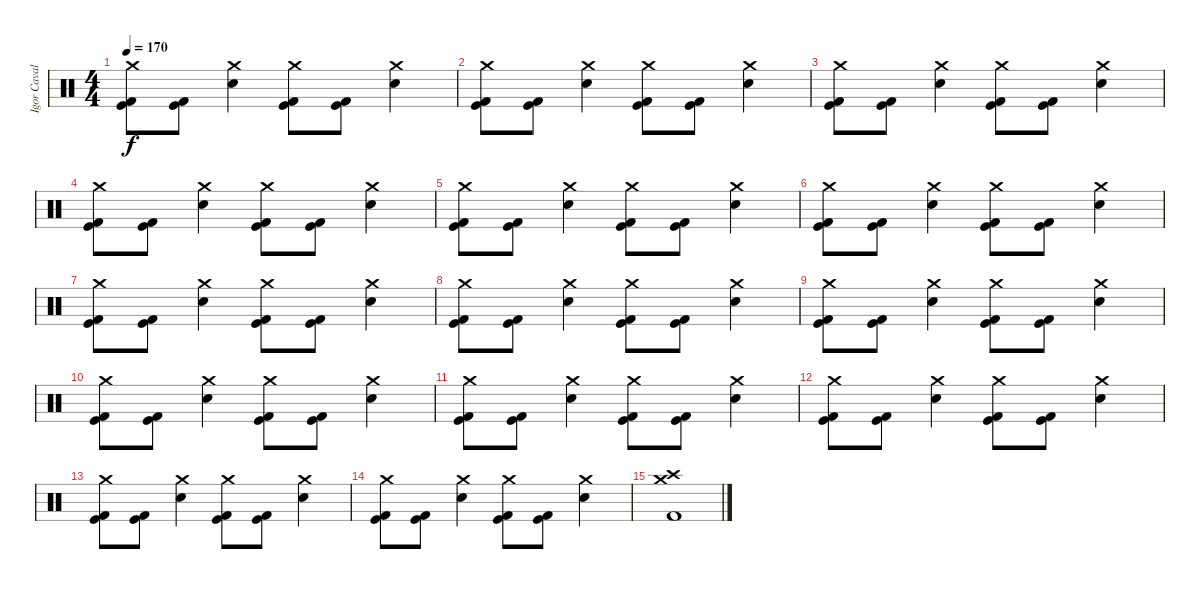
\track ("Igor Cavalera" "Igor Caval") {instrument percussion}
\staff {score}
\articulation defaults
\ts (4 4)
\tempo 170
\clef neutral
\ks c
("Crash medium (hit)" "Kick (hit)" "Kick (hit) 2").8{dy f} ("Kick (hit)" "Kick (hit) 2").8 ("Crash medium (hit)" "Snare (hit) 2").4 ("Crash medium (hit)" "Kick (hit)" "Kick (hit) 2").8 ("Kick (hit)" "Kick (hit) 2").8 ("Crash medium (hit)" "Snare (hit) 2").4 |
("Crash medium (hit)" "Kick (hit)" "Kick (hit) 2").8 ("Kick (hit)" "Kick (hit) 2").8 ("Crash medium (hit)" "Snare (hit) 2").4 ("Crash medium (hit)" "Kick (hit)" "Kick (hit) 2").8 ("Kick (hit)" "Kick (hit) 2").8 ("Crash medium (hit)" "Snare (hit) 2").4 |
("Crash medium (hit)" "Kick (hit)" "Kick (hit) 2").8 ("Kick (hit)" "Kick (hit) 2").8 ("Crash medium (hit)" "Snare (hit) 2").4 ("Crash medium (hit)" "Kick (hit)" "Kick (hit) 2").8 ("Kick (hit)" "Kick (hit) 2").8 ("Crash medium (hit)" "Snare (hit) 2").4 |
("Crash medium (hit)" "Kick (hit)" "Kick (hit) 2").8 ("Kick (hit)" "Kick (hit) 2").8 ("Crash medium (hit)" "Snare (hit) 2").4 ("Crash medium (hit)" "Kick (hit)" "Kick (hit) 2").8 ("Kick (hit)" "Kick (hit) 2").8 ("Crash medium (hit)" "Snare (hit) 2").4 |
("Crash medium (hit)" "Kick (hit)" "Kick (hit) 2").8 ("Kick (hit)" "Kick (hit) 2").8 ("Crash medium (hit)" "Snare (hit) 2").4 ("Crash medium (hit)" "Kick (hit)" "Kick (hit) 2").8 ("Kick (hit)" "Kick (hit) 2").8 ("Crash medium (hit)" "Snare (hit) 2").4 |
("Crash medium (hit)" "Kick (hit)" "Kick (hit) 2").8 ("Kick (hit)" "Kick (hit) 2").8 ("Crash medium (hit)" "Snare (hit) 2").4 ("Crash medium (hit)" "Kick (hit)" "Kick (hit) 2").8 ("Kick (hit)" "Kick (hit) 2").8 ("Crash medium (hit)" "Snare (hit) 2").4 |
("Crash medium (hit)" "Kick (hit)" "Kick (hit) 2").8 ("Kick (hit)" "Kick (hit) 2").8 ("Crash medium (hit)" "Snare (hit) 2").4 ("Crash medium (hit)" "Kick (hit)" "Kick (hit) 2").8 ("Kick (hit)" "Kick (hit) 2").8 ("Crash medium (hit)" "Snare (hit) 2").4 |
("Crash medium (hit)" "Kick (hit)" "Kick (hit) 2").8 ("Kick (hit)" "Kick (hit) 2").8 ("Crash medium (hit)" "Snare (hit) 2").4 ("Crash medium (hit)" "Kick (hit)" "Kick (hit) 2").8 ("Kick (hit)" "Kick (hit) 2").8 ("Crash medium (hit)" "Snare (hit) 2").4 |
("Crash medium (hit)" "Kick (hit)" "Kick (hit) 2").8 ("Kick (hit)" "Kick (hit) 2").8 ("Crash medium (hit)" "Snare (hit) 2").4 ("Crash medium (hit)" "Kick (hit)" "Kick (hit) 2").8 ("Kick (hit)" "Kick (hit) 2").8 ("Crash medium (hit)" "Snare (hit) 2").4 |
("Crash medium (hit)" "Kick (hit)" "Kick (hit) 2").8 ("Kick (hit)" "Kick (hit) 2").8 ("Crash medium (hit)" "Snare (hit) 2").4 ("Crash medium (hit)" "Kick (hit)" "Kick (hit) 2").8 ("Kick (hit)" "Kick (hit) 2").8 ("Crash medium (hit)" "Snare (hit) 2").4 |
("Crash medium (hit)" "Kick (hit)" "Kick (hit) 2").8 ("Kick (hit)" "Kick (hit) 2").8 ("Crash medium (hit)" "Snare (hit) 2").4 ("Crash medium (hit)" "Kick (hit)" "Kick (hit) 2").8 ("Kick (hit)" "Kick (hit) 2").8 ("Crash medium (hit)" "Snare (hit) 2").4 |
("Crash medium (hit)" "Kick (hit)" "Kick (hit) 2").8 ("Kick (hit)" "Kick (hit) 2").8 ("Crash medium (hit)" "Snare (hit) 2").4 ("Crash medium (hit)" "Kick (hit)" "Kick (hit) 2").8 ("Kick (hit)" "Kick (hit) 2").8 ("Crash medium (hit)" "Snare (hit) 2").4 |
("Crash medium (hit)" "Kick (hit)" "Kick (hit) 2").8 ("Kick (hit)" "Kick (hit) 2").8 ("Crash medium (hit)" "Snare (hit) 2").4 ("Crash medium (hit)" "Kick (hit)" "Kick (hit) 2").8 ("Kick (hit)" "Kick (hit) 2").8 ("Crash medium (hit)" "Snare (hit) 2").4 |
("Crash medium (hit)" "Kick (hit)" "Kick (hit) 2").8 ("Kick (hit)" "Kick (hit) 2").8 ("Crash medium (hit)" "Snare (hit) 2").4 ("Crash medium (hit)" "Kick (hit)" "Kick (hit) 2").8 ("Kick (hit)" "Kick (hit) 2").8 ("Crash medium (hit)" "Snare (hit) 2").4 |
("Crash high (hit)" "Crash medium (hit)" "Kick (hit) 2").1
